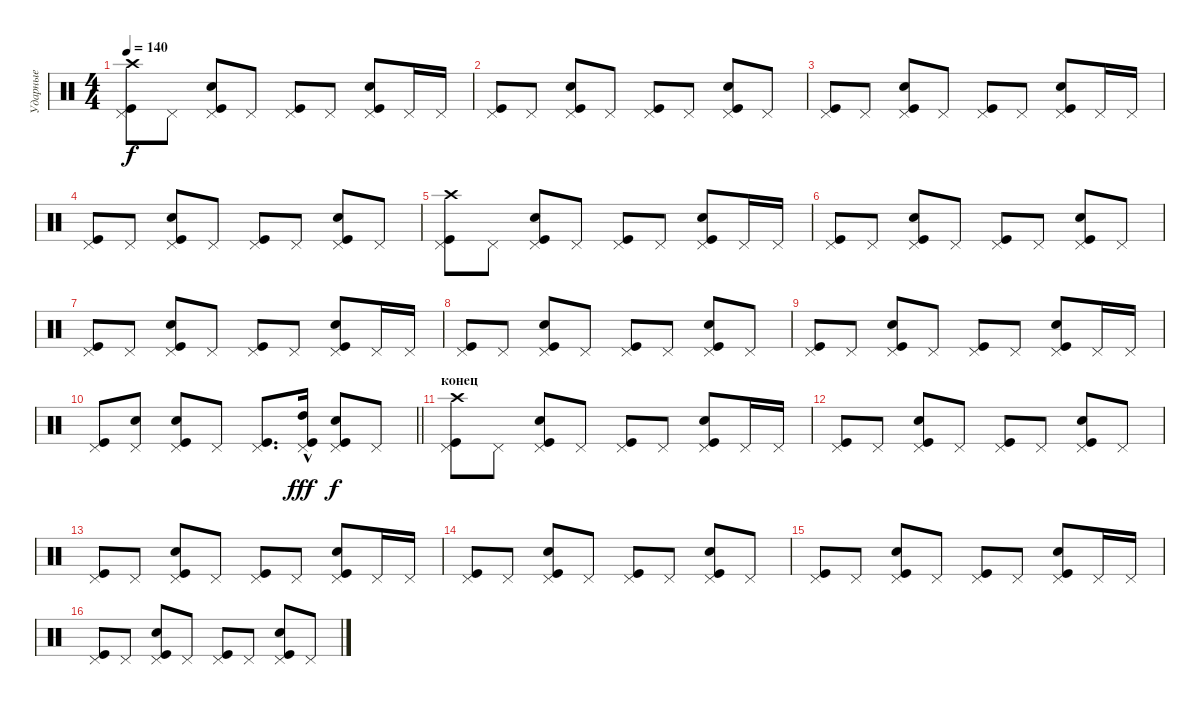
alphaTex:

\track ("Ударные" "Ударные") {instrument percussion}
\staff {score}
\articulation defaults
\ts (4 4)
\tempo 140
\clef neutral
\ks c
("Pedal Hi-Hat (hit)" "Kick (hit)" "Crash high (hit)").8{dy f} "Pedal Hi-Hat (hit)".8 ("Pedal Hi-Hat (hit)" "Kick (hit)" "Snare (hit) 2").8 "Pedal Hi-Hat (hit)".8 ("Pedal Hi-Hat (hit)" "Kick (hit)").8 "Pedal Hi-Hat (hit)".8 ("Pedal Hi-Hat (hit)" "Kick (hit)" "Snare (hit) 2").8 "Pedal Hi-Hat (hit)".16 "Pedal Hi-Hat (hit)".16 |
("Pedal Hi-Hat (hit)" "Kick (hit)").8 "Pedal Hi-Hat (hit)".8 ("Pedal Hi-Hat (hit)" "Kick (hit)" "Snare (hit) 2").8 "Pedal Hi-Hat (hit)".8 ("Pedal Hi-Hat (hit)" "Kick (hit)").8 "Pedal Hi-Hat (hit)".8 ("Pedal Hi-Hat (hit)" "Kick (hit)" "Snare (hit) 2").8 "Pedal Hi-Hat (hit)".8 |
("Pedal Hi-Hat (hit)" "Kick (hit)").8 "Pedal Hi-Hat (hit)".8 ("Pedal Hi-Hat (hit)" "Kick (hit)" "Snare (hit) 2").8 "Pedal Hi-Hat (hit)".8 ("Pedal Hi-Hat (hit)" "Kick (hit)").8 "Pedal Hi-Hat (hit)".8 ("Pedal Hi-Hat (hit)" "Kick (hit)" "Snare (hit) 2").8 "Pedal Hi-Hat (hit)".16 "Pedal Hi-Hat (hit)".16 |
("Pedal Hi-Hat (hit)" "Kick (hit)").8 "Pedal Hi-Hat (hit)".8 ("Pedal Hi-Hat (hit)" "Kick (hit)" "Snare (hit) 2").8 "Pedal Hi-Hat (hit)".8 ("Pedal Hi-Hat (hit)" "Kick (hit)").8 "Pedal Hi-Hat (hit)".8 ("Pedal Hi-Hat (hit)" "Kick (hit)" "Snare (hit) 2").8 "Pedal Hi-Hat (hit)".8 |
("Pedal Hi-Hat (hit)" "Kick (hit)" "Crash high (hit)").8 "Pedal Hi-Hat (hit)".8 ("Pedal Hi-Hat (hit)" "Kick (hit)" "Snare (hit) 2").8 "Pedal Hi-Hat (hit)".8 ("Pedal Hi-Hat (hit)" "Kick (hit)").8 "Pedal Hi-Hat (hit)".8 ("Pedal Hi-Hat (hit)" "Kick (hit)" "Snare (hit) 2").8 "Pedal Hi-Hat (hit)".16 "Pedal Hi-Hat (hit)".16 |
("Pedal Hi-Hat (hit)" "Kick (hit)").8 "Pedal Hi-Hat (hit)".8 ("Pedal Hi-Hat (hit)" "Kick (hit)" "Snare (hit) 2").8 "Pedal Hi-Hat (hit)".8 ("Pedal Hi-Hat (hit)" "Kick (hit)").8 "Pedal Hi-Hat (hit)".8 ("Pedal Hi-Hat (hit)" "Kick (hit)" "Snare (hit) 2").8 "Pedal Hi-Hat (hit)".8 |
("Pedal Hi-Hat (hit)" "Kick (hit)").8 "Pedal Hi-Hat (hit)".8 ("Pedal Hi-Hat (hit)" "Kick (hit)" "Snare (hit) 2").8 "Pedal Hi-Hat (hit)".8 ("Pedal Hi-Hat (hit)" "Kick (hit)").8 "Pedal Hi-Hat (hit)".8 ("Pedal Hi-Hat (hit)" "Kick (hit)" "Snare (hit) 2").8 "Pedal Hi-Hat (hit)".16 "Pedal Hi-Hat (hit)".16 |
("Pedal Hi-Hat (hit)" "Kick (hit)").8 "Pedal Hi-Hat (hit)".8 ("Pedal Hi-Hat (hit)" "Kick (hit)" "Snare (hit) 2").8 "Pedal Hi-Hat (hit)".8 ("Pedal Hi-Hat (hit)" "Kick (hit)").8 "Pedal Hi-Hat (hit)".8 ("Pedal Hi-Hat (hit)" "Kick (hit)" "Snare (hit) 2").8 "Pedal Hi-Hat (hit)".8 |
("Pedal Hi-Hat (hit)" "Kick (hit)").8 "Pedal Hi-Hat (hit)".8 ("Pedal Hi-Hat (hit)" "Kick (hit)" "Snare (hit) 2").8 "Pedal Hi-Hat (hit)".8 ("Pedal Hi-Hat (hit)" "Kick (hit)").8 "Pedal Hi-Hat (hit)".8 ("Pedal Hi-Hat (hit)" "Kick (hit)" "Snare (hit) 2").8 "Pedal Hi-Hat (hit)".16 "Pedal Hi-Hat (hit)".16 |
\barLineRight lightlight
("Pedal Hi-Hat (hit)" "Kick (hit)").8 ("Pedal Hi-Hat (hit)" "Snare (hit) 2").8 ("Pedal Hi-Hat (hit)" "Kick (hit)" "Snare (hit) 2").8 "Pedal Hi-Hat (hit)".8 ("Pedal Hi-Hat (hit)" "Kick (hit)").8{d} ("Pedal Hi-Hat (hit)" "Kick (hit)" "High Tom (hit)"{hac}).16{dy fff} ("Pedal Hi-Hat (hit)" "Kick (hit)" "Snare (hit) 2").8{dy f} "Pedal Hi-Hat (hit)".8 |
\section ("" "конец")
("Pedal Hi-Hat (hit)" "Kick (hit)" "Crash high (hit)").8 "Pedal Hi-Hat (hit)".8 ("Pedal Hi-Hat (hit)" "Kick (hit)" "Snare (hit) 2").8 "Pedal Hi-Hat (hit)".8 ("Pedal Hi-Hat (hit)" "Kick (hit)").8 "Pedal Hi-Hat (hit)".8 ("Pedal Hi-Hat (hit)" "Kick (hit)" "Snare (hit) 2").8 "Pedal Hi-Hat (hit)".16 "Pedal Hi-Hat (hit)".16 |
("Pedal Hi-Hat (hit)" "Kick (hit)").8 "Pedal Hi-Hat (hit)".8 ("Pedal Hi-Hat (hit)" "Kick (hit)" "Snare (hit) 2").8 "Pedal Hi-Hat (hit)".8 ("Pedal Hi-Hat (hit)" "Kick (hit)").8 "Pedal Hi-Hat (hit)".8 ("Pedal Hi-Hat (hit)" "Kick (hit)" "Snare (hit) 2").8 "Pedal Hi-Hat (hit)".8 |
("Pedal Hi-Hat (hit)" "Kick (hit)").8 "Pedal Hi-Hat (hit)".8 ("Pedal Hi-Hat (hit)" "Kick (hit)" "Snare (hit) 2").8 "Pedal Hi-Hat (hit)".8 ("Pedal Hi-Hat (hit)" "Kick (hit)").8 "Pedal Hi-Hat (hit)".8 ("Pedal Hi-Hat (hit)" "Kick (hit)" "Snare (hit) 2").8 "Pedal Hi-Hat (hit)".16 "Pedal Hi-Hat (hit)".16 |
("Pedal Hi-Hat (hit)" "Kick (hit)").8 "Pedal Hi-Hat (hit)".8 ("Pedal Hi-Hat (hit)" "Kick (hit)" "Snare (hit) 2").8 "Pedal Hi-Hat (hit)".8 ("Pedal Hi-Hat (hit)" "Kick (hit)").8 "Pedal Hi-Hat (hit)".8 ("Pedal Hi-Hat (hit)" "Kick (hit)" "Snare (hit) 2").8 "Pedal Hi-Hat (hit)".8 |
("Pedal Hi-Hat (hit)" "Kick (hit)").8 "Pedal Hi-Hat (hit)".8 ("Pedal Hi-Hat (hit)" "Kick (hit)" "Snare (hit) 2").8 "Pedal Hi-Hat (hit)".8 ("Pedal Hi-Hat (hit)" "Kick (hit)").8 "Pedal Hi-Hat (hit)".8 ("Pedal Hi-Hat (hit)" "Kick (hit)" "Snare (hit) 2").8 "Pedal Hi-Hat (hit)".16 "Pedal Hi-Hat (hit)".16 |
("Pedal Hi-Hat (hit)" "Kick (hit)").8 "Pedal Hi-Hat (hit)".8 ("Pedal Hi-Hat (hit)" "Kick (hit)" "Snare (hit) 2").8 "Pedal Hi-Hat (hit)".8 ("Pedal Hi-Hat (hit)" "Kick (hit)").8 "Pedal Hi-Hat (hit)".8 ("Pedal Hi-Hat (hit)" "Kick (hit)" "Snare (hit) 2").8 "Pedal Hi-Hat (hit)".8
